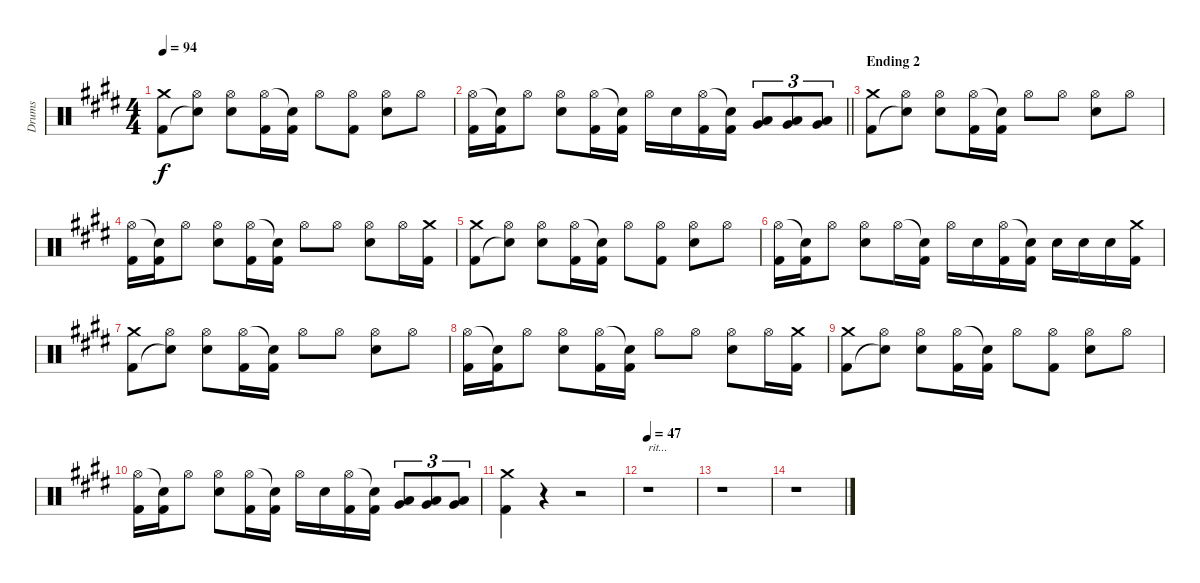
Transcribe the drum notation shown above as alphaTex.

\track ("Drums" "Drums") {instrument percussion}
\staff {score}
\articulation defaults
\ts (4 4)
\tempo 94
\clef neutral
\ks c#minor
("Crash medium (hit)" "Kick (hit) 2").8{dy f} ("Hi-Hat (open)" "Snare (hit)"{t}).8 ("Hi-Hat (open)" "Electric Snare (hit)").8 ("Hi-Hat (open)" "Kick (hit) 2").16 ("Snare (hit)"{t} "Kick (hit) 2").16 "Hi-Hat (open)".8 ("Hi-Hat (open)" "Kick (hit) 2").8 ("Hi-Hat (open)" "Electric Snare (hit)").8 "Hi-Hat (open)".8 |
\barLineRight lightlight
("Hi-Hat (open)" "Kick (hit) 2").16 ("Snare (hit)"{t} "Kick (hit) 2").16 "Hi-Hat (open)".8 ("Hi-Hat (open)" "Electric Snare (hit)").8 ("Hi-Hat (open)" "Kick (hit) 2").16 ("Snare (hit)"{t} "Kick (hit) 2").16 "Hi-Hat (open)".16 "Electric Snare (hit)".16 ("Hi-Hat (open)" "Kick (hit) 2").16 ("Snare (hit)"{t} "Kick (hit) 2").16 ("Very Low Tom (hit)" "Low Floor Tom (hit)").8{tu (3 2)} ("Very Low Tom (hit)" "Low Floor Tom (hit)").8{tu (3 2)} ("Very Low Tom (hit)" "Low Floor Tom (hit)").8{tu (3 2)} |
\section ("" "Ending 2")
("Crash medium (hit)" "Kick (hit) 2").8 ("Hi-Hat (open)" "Snare (hit)"{t}).8 ("Hi-Hat (open)" "Electric Snare (hit)").8 ("Hi-Hat (open)" "Kick (hit) 2").16 ("Snare (hit)"{t} "Kick (hit) 2").16 "Hi-Hat (open)".8 "Hi-Hat (open)".8 ("Hi-Hat (open)" "Electric Snare (hit)").8 "Hi-Hat (open)".8 |
("Hi-Hat (open)" "Kick (hit) 2").16 ("Snare (hit)"{t} "Kick (hit) 2").16 "Hi-Hat (open)".8 ("Hi-Hat (open)" "Electric Snare (hit)").8 ("Hi-Hat (open)" "Kick (hit) 2").16 ("Snare (hit)"{t} "Kick (hit) 2").16 "Hi-Hat (open)".8 "Hi-Hat (open)".8 ("Hi-Hat (open)" "Electric Snare (hit)").8 "Hi-Hat (open)".16 ("Crash medium (hit)" "Kick (hit) 2").16 |
("Crash medium (hit)" "Kick (hit) 2").8 ("Hi-Hat (open)" "Snare (hit)"{t}).8 ("Hi-Hat (open)" "Electric Snare (hit)").8 ("Hi-Hat (open)" "Kick (hit) 2").16 ("Snare (hit)"{t} "Kick (hit) 2").16 "Hi-Hat (open)".8 ("Hi-Hat (open)" "Kick (hit) 2").8 ("Hi-Hat (open)" "Electric Snare (hit)").8 "Hi-Hat (open)".8 |
("Hi-Hat (open)" "Kick (hit) 2").16 ("Snare (hit)"{t} "Kick (hit) 2").16 "Hi-Hat (open)".8 ("Hi-Hat (open)" "Electric Snare (hit)").8 "Hi-Hat (open)".16 ("Snare (hit)"{t} "Kick (hit) 2").16 "Hi-Hat (open)".16 "Electric Snare (hit)".16 ("Hi-Hat (open)" "Kick (hit) 2").16 ("Snare (hit)"{t} "Kick (hit) 2").16 "Electric Snare (hit)".16 "Electric Snare (hit)".16 "Electric Snare (hit)".16 ("Crash medium (hit)" "Kick (hit) 2").16 |
("Crash medium (hit)" "Kick (hit) 2").8 ("Hi-Hat (open)" "Snare (hit)"{t}).8 ("Hi-Hat (open)" "Electric Snare (hit)").8 ("Hi-Hat (open)" "Kick (hit) 2").16 ("Snare (hit)"{t} "Kick (hit) 2").16 "Hi-Hat (open)".8 "Hi-Hat (open)".8 ("Hi-Hat (open)" "Electric Snare (hit)").8 "Hi-Hat (open)".8 |
("Hi-Hat (open)" "Kick (hit) 2").16 ("Snare (hit)"{t} "Kick (hit) 2").16 "Hi-Hat (open)".8 ("Hi-Hat (open)" "Electric Snare (hit)").8 ("Hi-Hat (open)" "Kick (hit) 2").16 ("Snare (hit)"{t} "Kick (hit) 2").16 "Hi-Hat (open)".8 "Hi-Hat (open)".8 ("Hi-Hat (open)" "Electric Snare (hit)").8 "Hi-Hat (open)".16 ("Crash medium (hit)" "Kick (hit) 2").16 |
("Crash medium (hit)" "Kick (hit) 2").8 ("Hi-Hat (open)" "Snare (hit)"{t}).8 ("Hi-Hat (open)" "Electric Snare (hit)").8 ("Hi-Hat (open)" "Kick (hit) 2").16 ("Snare (hit)"{t} "Kick (hit) 2").16 "Hi-Hat (open)".8 ("Hi-Hat (open)" "Kick (hit) 2").8 ("Hi-Hat (open)" "Electric Snare (hit)").8 "Hi-Hat (open)".8 |
("Hi-Hat (open)" "Kick (hit) 2").16 ("Snare (hit)"{t} "Kick (hit) 2").16 "Hi-Hat (open)".8 ("Hi-Hat (open)" "Electric Snare (hit)").8 ("Hi-Hat (open)" "Kick (hit) 2").16 ("Snare (hit)"{t} "Kick (hit) 2").16 "Hi-Hat (open)".16 "Electric Snare (hit)".16 ("Hi-Hat (open)" "Kick (hit) 2").16 ("Snare (hit)"{t} "Kick (hit) 2").16 ("Very Low Tom (hit)" "Low Floor Tom (hit)").8{tu (3 2)} ("Very Low Tom (hit)" "Low Floor Tom (hit)").8{tu (3 2)} ("Very Low Tom (hit)" "Low Floor Tom (hit)").8{tu (3 2)} |
("Crash medium (hit)" "Kick (hit) 2").4 r.4 r.2 |
\tempo 47
r.1{txt "rit..."} |
r.1 |
r.1
